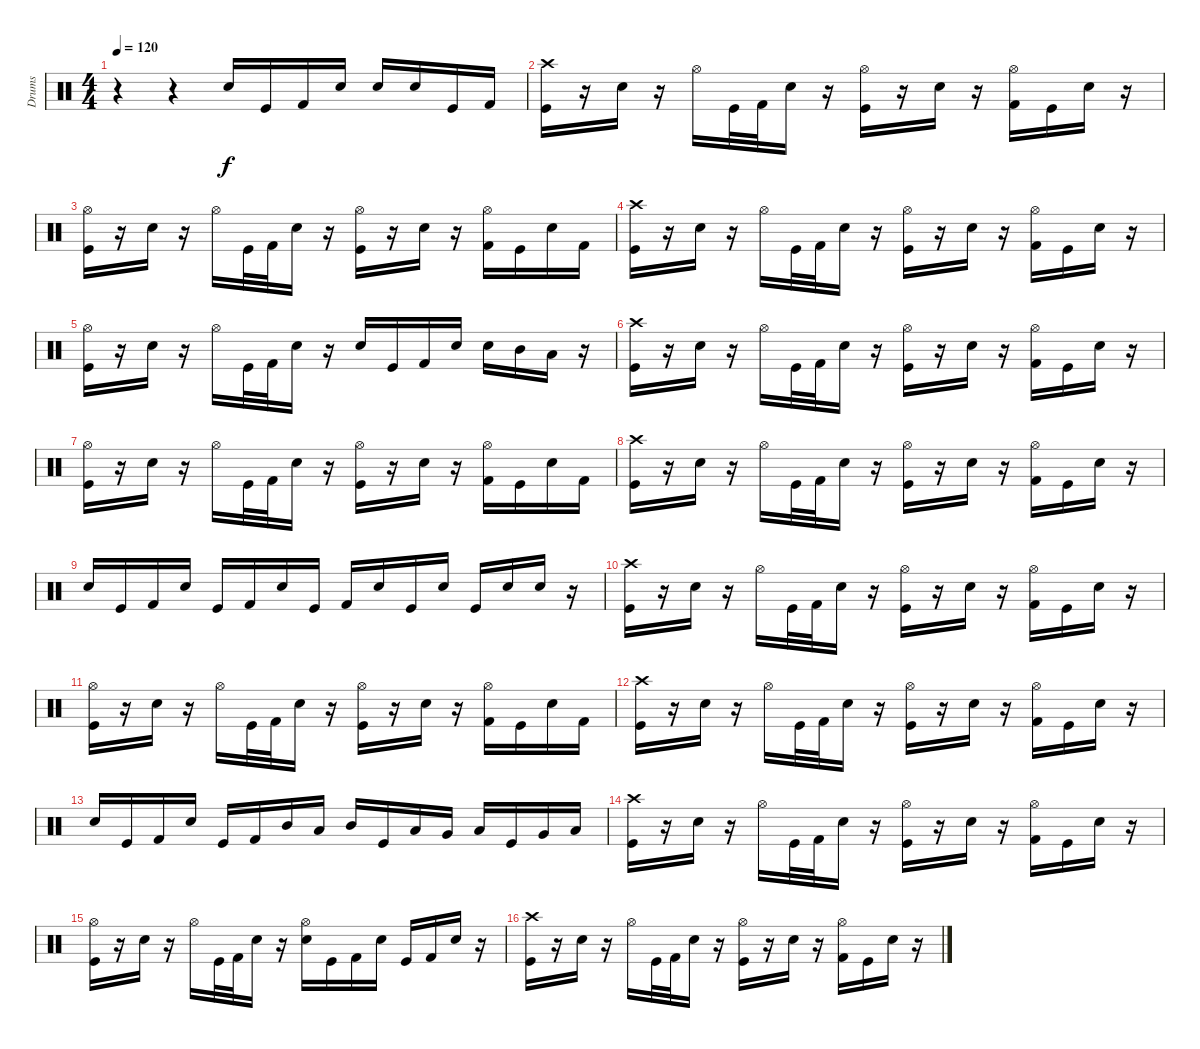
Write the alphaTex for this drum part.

\track ("Drums" "Drums") {instrument percussion}
\staff {score}
\articulation defaults
\ts (4 4)
\tempo 120
\clef neutral
\ks c
r.4{dy f} r.4 "Electric Snare (hit)".16 "Kick (hit)".16 "Kick (hit) 2".16 "Electric Snare (hit)".16 "Electric Snare (hit)".16 "Electric Snare (hit)".16 "Kick (hit)".16 "Kick (hit) 2".16 |
("Crash high (hit)" "Kick (hit)").16 r.16 "Electric Snare (hit)".16 r.16 "Hi-Hat (open)".16 "Kick (hit)".32 "Kick (hit) 2".32 "Electric Snare (hit)".16 r.16 ("Hi-Hat (open)" "Kick (hit)").16 r.16 "Electric Snare (hit)".16 r.16 ("Hi-Hat (open)" "Kick (hit) 2").16 "Kick (hit)".16 "Electric Snare (hit)".16 r.16 |
("Hi-Hat (open)" "Kick (hit)").16 r.16 "Electric Snare (hit)".16 r.16 "Hi-Hat (open)".16 "Kick (hit)".32 "Kick (hit) 2".32 "Electric Snare (hit)".16 r.16 ("Hi-Hat (open)" "Kick (hit)").16 r.16 "Electric Snare (hit)".16 r.16 ("Hi-Hat (open)" "Kick (hit) 2").16 "Kick (hit)".16 "Electric Snare (hit)".16 "Kick (hit) 2".16 |
("Crash high (hit)" "Kick (hit)").16 r.16 "Electric Snare (hit)".16 r.16 "Hi-Hat (open)".16 "Kick (hit)".32 "Kick (hit) 2".32 "Electric Snare (hit)".16 r.16 ("Hi-Hat (open)" "Kick (hit)").16 r.16 "Electric Snare (hit)".16 r.16 ("Hi-Hat (open)" "Kick (hit) 2").16 "Kick (hit)".16 "Electric Snare (hit)".16 r.16 |
("Hi-Hat (open)" "Kick (hit)").16 r.16 "Electric Snare (hit)".16 r.16 "Hi-Hat (open)".16 "Kick (hit)".32 "Kick (hit) 2".32 "Electric Snare (hit)".16 r.16 "Electric Snare (hit)".16 "Kick (hit)".16 "Kick (hit) 2".16 "Electric Snare (hit)".16 "Electric Snare (hit)".16 "Mid Tom (hit)".16 "Low Tom (hit)".16 r.16 |
("Crash high (hit)" "Kick (hit)").16 r.16 "Electric Snare (hit)".16 r.16 "Hi-Hat (open)".16 "Kick (hit)".32 "Kick (hit) 2".32 "Electric Snare (hit)".16 r.16 ("Hi-Hat (open)" "Kick (hit)").16 r.16 "Electric Snare (hit)".16 r.16 ("Hi-Hat (open)" "Kick (hit) 2").16 "Kick (hit)".16 "Electric Snare (hit)".16 r.16 |
("Hi-Hat (open)" "Kick (hit)").16 r.16 "Electric Snare (hit)".16 r.16 "Hi-Hat (open)".16 "Kick (hit)".32 "Kick (hit) 2".32 "Electric Snare (hit)".16 r.16 ("Hi-Hat (open)" "Kick (hit)").16 r.16 "Electric Snare (hit)".16 r.16 ("Hi-Hat (open)" "Kick (hit) 2").16 "Kick (hit)".16 "Electric Snare (hit)".16 "Kick (hit) 2".16 |
("Crash high (hit)" "Kick (hit)").16 r.16 "Electric Snare (hit)".16 r.16 "Hi-Hat (open)".16 "Kick (hit)".32 "Kick (hit) 2".32 "Electric Snare (hit)".16 r.16 ("Hi-Hat (open)" "Kick (hit)").16 r.16 "Electric Snare (hit)".16 r.16 ("Hi-Hat (open)" "Kick (hit) 2").16 "Kick (hit)".16 "Electric Snare (hit)".16 r.16 |
"Electric Snare (hit)".16 "Kick (hit)".16 "Kick (hit) 2".16 "Electric Snare (hit)".16 "Kick (hit)".16 "Kick (hit) 2".16 "Electric Snare (hit)".16 "Kick (hit)".16 "Kick (hit) 2".16 "Electric Snare (hit)".16 "Kick (hit)".16 "Electric Snare (hit)".16 "Kick (hit)".16 "Electric Snare (hit)".16 "Electric Snare (hit)".16 r.16 |
("Crash high (hit)" "Kick (hit)").16 r.16 "Electric Snare (hit)".16 r.16 "Hi-Hat (open)".16 "Kick (hit)".32 "Kick (hit) 2".32 "Electric Snare (hit)".16 r.16 ("Hi-Hat (open)" "Kick (hit)").16 r.16 "Electric Snare (hit)".16 r.16 ("Hi-Hat (open)" "Kick (hit) 2").16 "Kick (hit)".16 "Electric Snare (hit)".16 r.16 |
("Hi-Hat (open)" "Kick (hit)").16 r.16 "Electric Snare (hit)".16 r.16 "Hi-Hat (open)".16 "Kick (hit)".32 "Kick (hit) 2".32 "Electric Snare (hit)".16 r.16 ("Hi-Hat (open)" "Kick (hit)").16 r.16 "Electric Snare (hit)".16 r.16 ("Hi-Hat (open)" "Kick (hit) 2").16 "Kick (hit)".16 "Electric Snare (hit)".16 "Kick (hit) 2".16 |
("Crash high (hit)" "Kick (hit)").16 r.16 "Electric Snare (hit)".16 r.16 "Hi-Hat (open)".16 "Kick (hit)".32 "Kick (hit) 2".32 "Electric Snare (hit)".16 r.16 ("Hi-Hat (open)" "Kick (hit)").16 r.16 "Electric Snare (hit)".16 r.16 ("Hi-Hat (open)" "Kick (hit) 2").16 "Kick (hit)".16 "Electric Snare (hit)".16 r.16 |
"Electric Snare (hit)".16 "Kick (hit)".16 "Kick (hit) 2".16 "Electric Snare (hit)".16 "Kick (hit)".16 "Kick (hit) 2".16 "Mid Tom (hit)".16 "Low Tom (hit)".16 "Mid Tom (hit)".16 "Kick (hit)".16 "Low Tom (hit)".16 "Very Low Tom (hit)".16 "Low Tom (hit)".16 "Kick (hit)".16 "Very Low Tom (hit)".16 "Low Floor Tom (hit)".16 |
("Crash high (hit)" "Kick (hit)").16 r.16 "Electric Snare (hit)".16 r.16 "Hi-Hat (open)".16 "Kick (hit)".32 "Kick (hit) 2".32 "Electric Snare (hit)".16 r.16 ("Hi-Hat (open)" "Kick (hit)").16 r.16 "Electric Snare (hit)".16 r.16 ("Hi-Hat (open)" "Kick (hit) 2").16 "Kick (hit)".16 "Electric Snare (hit)".16 r.16 |
("Hi-Hat (open)" "Kick (hit)").16 r.16 "Electric Snare (hit)".16 r.16 "Hi-Hat (open)".16 "Kick (hit)".32 "Kick (hit) 2".32 "Electric Snare (hit)".16 r.16 ("Hi-Hat (open)" "Electric Snare (hit)").16 "Kick (hit)".16 "Kick (hit) 2".16 "Electric Snare (hit)".16 "Kick (hit)".16 "Kick (hit) 2".16 "Electric Snare (hit)".16 r.16 |
("Crash high (hit)" "Kick (hit)").16 r.16 "Electric Snare (hit)".16 r.16 "Hi-Hat (open)".16 "Kick (hit)".32 "Kick (hit) 2".32 "Electric Snare (hit)".16 r.16 ("Hi-Hat (open)" "Kick (hit)").16 r.16 "Electric Snare (hit)".16 r.16 ("Hi-Hat (open)" "Kick (hit) 2").16 "Kick (hit)".16 "Electric Snare (hit)".16 r.16
